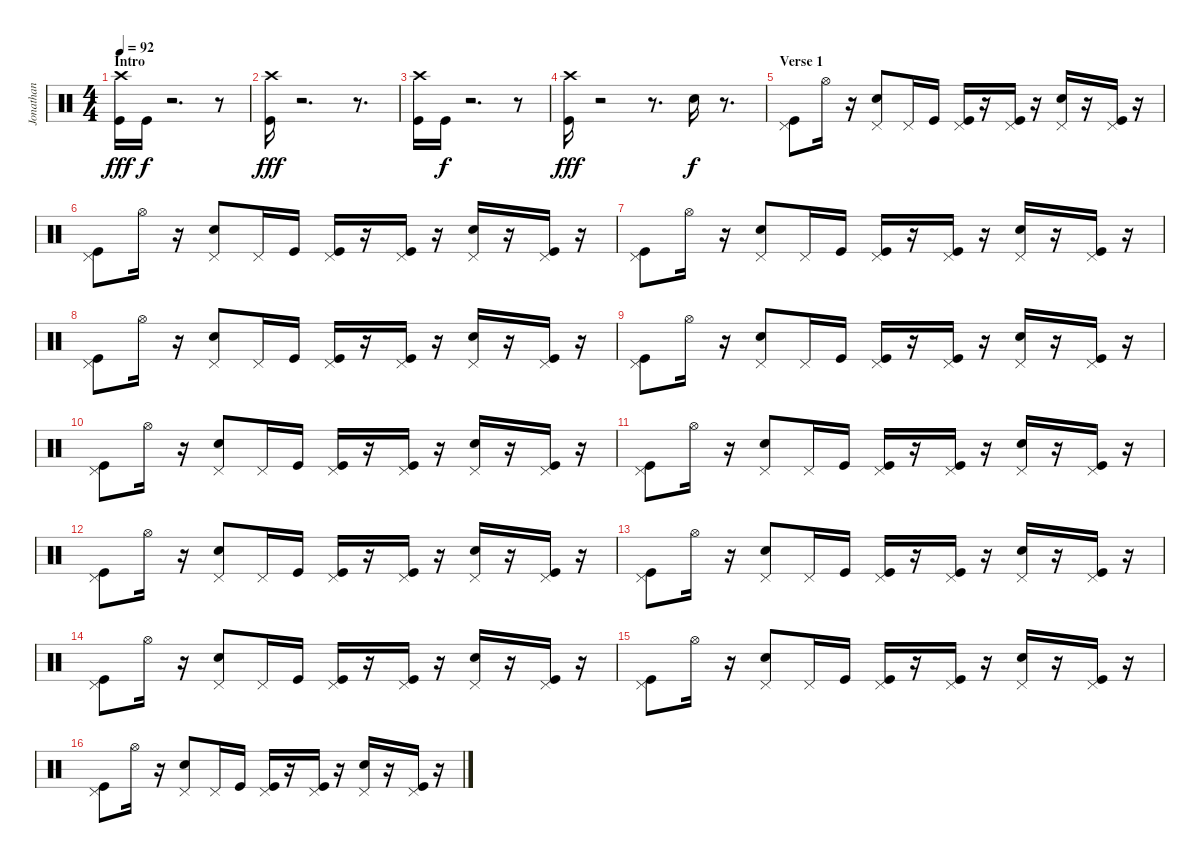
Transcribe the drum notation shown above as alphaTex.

\track ("Jonathan" "Jonathan") {instrument percussion}
\staff {score}
\articulation defaults
\ts (4 4)
\section ("" "Intro")
\tempo 92
\clef neutral
\ks c
("Crash high (hit)" "Kick (hit)").16{dy fff} "Kick (hit)".16{dy f} r.2{d} r.8 |
("Crash high (hit)" "Kick (hit)").16{dy fff} r.2{d} r.8{d} |
("Crash high (hit)" "Kick (hit)").16 "Kick (hit)".16{dy f} r.2{d} r.8 |
("Crash high (hit)" "Kick (hit)").16{dy fff} r.2 r.8{d} "Electric Snare (hit)".16{dy f} r.8{d} |
\section ("" "Verse 1")
("Pedal Hi-Hat (hit)" "Kick (hit)").8 "Hi-Hat (open)".16 r.16 ("Pedal Hi-Hat (hit)" "Electric Snare (hit)").8 "Pedal Hi-Hat (hit)".16 "Kick (hit)".16 ("Pedal Hi-Hat (hit)" "Kick (hit)").16 r.16 ("Pedal Hi-Hat (hit)" "Kick (hit)").16 r.16 ("Pedal Hi-Hat (hit)" "Electric Snare (hit)").16 r.16 ("Pedal Hi-Hat (hit)" "Kick (hit)").16 r.16 |
("Pedal Hi-Hat (hit)" "Kick (hit)").8 "Hi-Hat (open)".16 r.16 ("Pedal Hi-Hat (hit)" "Electric Snare (hit)").8 "Pedal Hi-Hat (hit)".16 "Kick (hit)".16 ("Pedal Hi-Hat (hit)" "Kick (hit)").16 r.16 ("Pedal Hi-Hat (hit)" "Kick (hit)").16 r.16 ("Pedal Hi-Hat (hit)" "Electric Snare (hit)").16 r.16 ("Pedal Hi-Hat (hit)" "Kick (hit)").16 r.16 |
("Pedal Hi-Hat (hit)" "Kick (hit)").8 "Hi-Hat (open)".16 r.16 ("Pedal Hi-Hat (hit)" "Electric Snare (hit)").8 "Pedal Hi-Hat (hit)".16 "Kick (hit)".16 ("Pedal Hi-Hat (hit)" "Kick (hit)").16 r.16 ("Pedal Hi-Hat (hit)" "Kick (hit)").16 r.16 ("Pedal Hi-Hat (hit)" "Electric Snare (hit)").16 r.16 ("Pedal Hi-Hat (hit)" "Kick (hit)").16 r.16 |
("Pedal Hi-Hat (hit)" "Kick (hit)").8 "Hi-Hat (open)".16 r.16 ("Pedal Hi-Hat (hit)" "Electric Snare (hit)").8 "Pedal Hi-Hat (hit)".16 "Kick (hit)".16 ("Pedal Hi-Hat (hit)" "Kick (hit)").16 r.16 ("Pedal Hi-Hat (hit)" "Kick (hit)").16 r.16 ("Pedal Hi-Hat (hit)" "Electric Snare (hit)").16 r.16 ("Pedal Hi-Hat (hit)" "Kick (hit)").16 r.16 |
("Pedal Hi-Hat (hit)" "Kick (hit)").8 "Hi-Hat (open)".16 r.16 ("Pedal Hi-Hat (hit)" "Electric Snare (hit)").8 "Pedal Hi-Hat (hit)".16 "Kick (hit)".16 ("Pedal Hi-Hat (hit)" "Kick (hit)").16 r.16 ("Pedal Hi-Hat (hit)" "Kick (hit)").16 r.16 ("Pedal Hi-Hat (hit)" "Electric Snare (hit)").16 r.16 ("Pedal Hi-Hat (hit)" "Kick (hit)").16 r.16 |
("Pedal Hi-Hat (hit)" "Kick (hit)").8 "Hi-Hat (open)".16 r.16 ("Pedal Hi-Hat (hit)" "Electric Snare (hit)").8 "Pedal Hi-Hat (hit)".16 "Kick (hit)".16 ("Pedal Hi-Hat (hit)" "Kick (hit)").16 r.16 ("Pedal Hi-Hat (hit)" "Kick (hit)").16 r.16 ("Pedal Hi-Hat (hit)" "Electric Snare (hit)").16 r.16 ("Pedal Hi-Hat (hit)" "Kick (hit)").16 r.16 |
("Pedal Hi-Hat (hit)" "Kick (hit)").8 "Hi-Hat (open)".16 r.16 ("Pedal Hi-Hat (hit)" "Electric Snare (hit)").8 "Pedal Hi-Hat (hit)".16 "Kick (hit)".16 ("Pedal Hi-Hat (hit)" "Kick (hit)").16 r.16 ("Pedal Hi-Hat (hit)" "Kick (hit)").16 r.16 ("Pedal Hi-Hat (hit)" "Electric Snare (hit)").16 r.16 ("Pedal Hi-Hat (hit)" "Kick (hit)").16 r.16 |
("Pedal Hi-Hat (hit)" "Kick (hit)").8 "Hi-Hat (open)".16 r.16 ("Pedal Hi-Hat (hit)" "Electric Snare (hit)").8 "Pedal Hi-Hat (hit)".16 "Kick (hit)".16 ("Pedal Hi-Hat (hit)" "Kick (hit)").16 r.16 ("Pedal Hi-Hat (hit)" "Kick (hit)").16 r.16 ("Pedal Hi-Hat (hit)" "Electric Snare (hit)").16 r.16 ("Pedal Hi-Hat (hit)" "Kick (hit)").16 r.16 |
("Pedal Hi-Hat (hit)" "Kick (hit)").8 "Hi-Hat (open)".16 r.16 ("Pedal Hi-Hat (hit)" "Electric Snare (hit)").8 "Pedal Hi-Hat (hit)".16 "Kick (hit)".16 ("Pedal Hi-Hat (hit)" "Kick (hit)").16 r.16 ("Pedal Hi-Hat (hit)" "Kick (hit)").16 r.16 ("Pedal Hi-Hat (hit)" "Electric Snare (hit)").16 r.16 ("Pedal Hi-Hat (hit)" "Kick (hit)").16 r.16 |
("Pedal Hi-Hat (hit)" "Kick (hit)").8 "Hi-Hat (open)".16 r.16 ("Pedal Hi-Hat (hit)" "Electric Snare (hit)").8 "Pedal Hi-Hat (hit)".16 "Kick (hit)".16 ("Pedal Hi-Hat (hit)" "Kick (hit)").16 r.16 ("Pedal Hi-Hat (hit)" "Kick (hit)").16 r.16 ("Pedal Hi-Hat (hit)" "Electric Snare (hit)").16 r.16 ("Pedal Hi-Hat (hit)" "Kick (hit)").16 r.16 |
("Pedal Hi-Hat (hit)" "Kick (hit)").8 "Hi-Hat (open)".16 r.16 ("Pedal Hi-Hat (hit)" "Electric Snare (hit)").8 "Pedal Hi-Hat (hit)".16 "Kick (hit)".16 ("Pedal Hi-Hat (hit)" "Kick (hit)").16 r.16 ("Pedal Hi-Hat (hit)" "Kick (hit)").16 r.16 ("Pedal Hi-Hat (hit)" "Electric Snare (hit)").16 r.16 ("Pedal Hi-Hat (hit)" "Kick (hit)").16 r.16 |
("Pedal Hi-Hat (hit)" "Kick (hit)").8 "Hi-Hat (open)".16 r.16 ("Pedal Hi-Hat (hit)" "Electric Snare (hit)").8 "Pedal Hi-Hat (hit)".16 "Kick (hit)".16 ("Pedal Hi-Hat (hit)" "Kick (hit)").16 r.16 ("Pedal Hi-Hat (hit)" "Kick (hit)").16 r.16 ("Pedal Hi-Hat (hit)" "Electric Snare (hit)").16 r.16 ("Pedal Hi-Hat (hit)" "Kick (hit)").16 r.16
